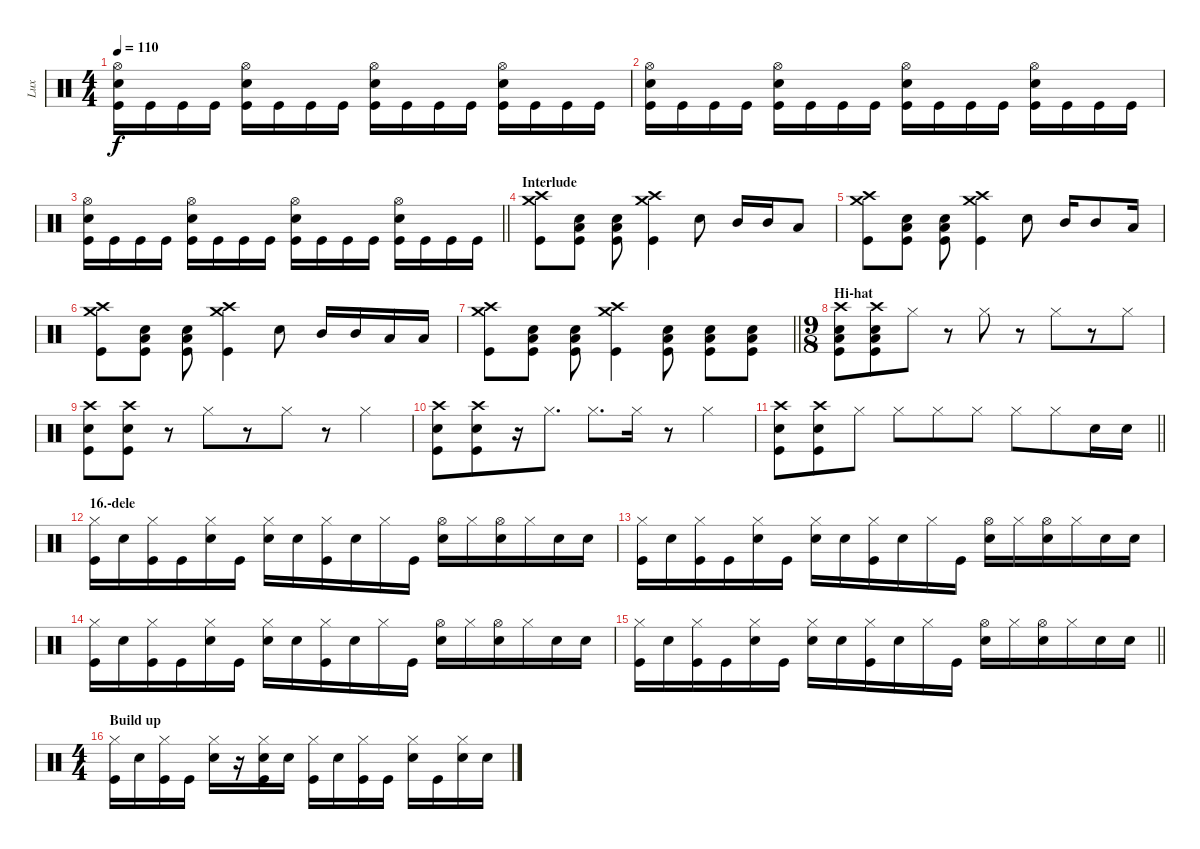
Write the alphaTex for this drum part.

\track ("Lux" "Lux") {instrument percussion}
\staff {score}
\articulation defaults
\ts (4 4)
\tempo 110
\clef neutral
\ks c
("Hi-Hat (open)" "Snare (hit) 2" "Kick (hit)").16{dy f} "Kick (hit)".16 "Kick (hit)".16 "Kick (hit)".16 ("Hi-Hat (open)" "Snare (hit) 2" "Kick (hit)").16 "Kick (hit)".16 "Kick (hit)".16 "Kick (hit)".16 ("Hi-Hat (open)" "Snare (hit) 2" "Kick (hit)").16 "Kick (hit)".16 "Kick (hit)".16 "Kick (hit)".16 ("Hi-Hat (open)" "Snare (hit) 2" "Kick (hit)").16 "Kick (hit)".16 "Kick (hit)".16 "Kick (hit)".16 |
("Hi-Hat (open)" "Snare (hit) 2" "Kick (hit)").16 "Kick (hit)".16 "Kick (hit)".16 "Kick (hit)".16 ("Hi-Hat (open)" "Snare (hit) 2" "Kick (hit)").16 "Kick (hit)".16 "Kick (hit)".16 "Kick (hit)".16 ("Hi-Hat (open)" "Snare (hit) 2" "Kick (hit)").16 "Kick (hit)".16 "Kick (hit)".16 "Kick (hit)".16 ("Hi-Hat (open)" "Snare (hit) 2" "Kick (hit)").16 "Kick (hit)".16 "Kick (hit)".16 "Kick (hit)".16 |
\barLineRight lightlight
("Hi-Hat (open)" "Snare (hit) 2" "Kick (hit)").16 "Kick (hit)".16 "Kick (hit)".16 "Kick (hit)".16 ("Hi-Hat (open)" "Snare (hit) 2" "Kick (hit)").16 "Kick (hit)".16 "Kick (hit)".16 "Kick (hit)".16 ("Hi-Hat (open)" "Snare (hit) 2" "Kick (hit)").16 "Kick (hit)".16 "Kick (hit)".16 "Kick (hit)".16 ("Hi-Hat (open)" "Snare (hit) 2" "Kick (hit)").16 "Kick (hit)".16 "Kick (hit)".16 "Kick (hit)".16 |
\section ("" "Interlude")
("Crash high (hit)" "Crash medium (hit)" "Kick (hit)").8 ("Low Tom (hit)" "Snare (hit) 2" "Kick (hit)").8 ("Low Tom (hit)" "Snare (hit) 2" "Kick (hit)").8 ("Crash high (hit)" "Crash medium (hit)" "Kick (hit)").4 "Snare (hit) 2".8 "Mid Tom (hit)".16 "Mid Tom (hit)".16 "Low Tom (hit)".8 |
("Crash high (hit)" "Crash medium (hit)" "Kick (hit)").8 ("Low Tom (hit)" "Snare (hit) 2" "Kick (hit)").8 ("Low Tom (hit)" "Snare (hit) 2" "Kick (hit)").8 ("Crash high (hit)" "Crash medium (hit)" "Kick (hit)").4 "Snare (hit) 2".8 "Mid Tom (hit)".16 "Mid Tom (hit)".8 "Low Tom (hit)".16 |
("Crash high (hit)" "Crash medium (hit)" "Kick (hit)").8 ("Low Tom (hit)" "Snare (hit) 2" "Kick (hit)").8 ("Low Tom (hit)" "Snare (hit) 2" "Kick (hit)").8 ("Crash high (hit)" "Crash medium (hit)" "Kick (hit)").4 "Snare (hit) 2".8 "Mid Tom (hit)".16 "Mid Tom (hit)".16 "Low Tom (hit)".16 "Low Tom (hit)".16 |
\barLineRight lightlight
("Crash high (hit)" "Crash medium (hit)" "Kick (hit)").8 ("Low Tom (hit)" "Snare (hit) 2" "Kick (hit)").8 ("Low Tom (hit)" "Snare (hit) 2" "Kick (hit)").8 ("Crash high (hit)" "Crash medium (hit)" "Kick (hit)").4 ("Low Tom (hit)" "Snare (hit) 2" "Kick (hit)").8 ("Low Tom (hit)" "Snare (hit) 2" "Kick (hit)").8 ("Low Tom (hit)" "Snare (hit) 2" "Kick (hit)").8 |
\ts (9 8)
\section ("" "Hi-hat")
("Crash high (hit)" "Low Tom (hit)" "Snare (hit) 2" "Kick (hit)").8 ("Crash high (hit)" "Low Tom (hit)" "Snare (hit) 2" "Kick (hit)").8 "Hi-Hat (closed)".8 r.8 "Hi-Hat (closed)".8 r.8 "Hi-Hat (closed)".8 r.8 "Hi-Hat (closed)".8 |
("Crash high (hit)" "Snare (hit) 2" "Kick (hit)").8 ("Crash high (hit)" "Snare (hit) 2" "Kick (hit)").8 r.8 "Hi-Hat (closed)".8 r.8 "Hi-Hat (closed)".8 r.8 "Hi-Hat (closed)".4 |
("Crash high (hit)" "Snare (hit) 2" "Kick (hit)").8 ("Crash high (hit)" "Snare (hit) 2" "Kick (hit)").8 r.16 "Hi-Hat (closed)".8{d} "Hi-Hat (closed)".8{d} "Hi-Hat (closed)".16 r.8 "Hi-Hat (closed)".4 |
\barLineRight lightlight
("Crash high (hit)" "Snare (hit) 2" "Kick (hit)").8 ("Crash high (hit)" "Snare (hit) 2" "Kick (hit)").8 "Hi-Hat (closed)".8 "Hi-Hat (closed)".8 "Hi-Hat (closed)".8 "Hi-Hat (closed)".8 "Hi-Hat (closed)".8 "Hi-Hat (closed)".8 "Snare (hit) 2".16 "Snare (hit) 2".16 |
\section ("" "16.-dele")
("Hi-Hat (closed)" "Kick (hit)").16 "Snare (hit) 2".16 ("Hi-Hat (closed)" "Kick (hit)").16 "Kick (hit)".16 ("Hi-Hat (closed)" "Snare (hit) 2").16 "Kick (hit)".16 ("Hi-Hat (closed)" "Snare (hit) 2").16 "Snare (hit) 2".16 ("Hi-Hat (closed)" "Kick (hit)").16 "Snare (hit) 2".16 "Hi-Hat (closed)".16 "Kick (hit)".16 ("Hi-Hat (open)" "Snare (hit) 2").16 "Hi-Hat (closed)".16 ("Hi-Hat (open)" "Snare (hit) 2").16 "Hi-Hat (closed)".16 "Snare (hit) 2".16 "Snare (hit) 2".16 |
("Hi-Hat (closed)" "Kick (hit)").16 "Snare (hit) 2".16 ("Hi-Hat (closed)" "Kick (hit)").16 "Kick (hit)".16 ("Hi-Hat (closed)" "Snare (hit) 2").16 "Kick (hit)".16 ("Hi-Hat (closed)" "Snare (hit) 2").16 "Snare (hit) 2".16 ("Hi-Hat (closed)" "Kick (hit)").16 "Snare (hit) 2".16 "Hi-Hat (closed)".16 "Kick (hit)".16 ("Hi-Hat (open)" "Snare (hit) 2").16 "Hi-Hat (closed)".16 ("Hi-Hat (open)" "Snare (hit) 2").16 "Hi-Hat (closed)".16 "Snare (hit) 2".16 "Snare (hit) 2".16 |
("Hi-Hat (closed)" "Kick (hit)").16 "Snare (hit) 2".16 ("Hi-Hat (closed)" "Kick (hit)").16 "Kick (hit)".16 ("Hi-Hat (closed)" "Snare (hit) 2").16 "Kick (hit)".16 ("Hi-Hat (closed)" "Snare (hit) 2").16 "Snare (hit) 2".16 ("Hi-Hat (closed)" "Kick (hit)").16 "Snare (hit) 2".16 "Hi-Hat (closed)".16 "Kick (hit)".16 ("Hi-Hat (open)" "Snare (hit) 2").16 "Hi-Hat (closed)".16 ("Hi-Hat (open)" "Snare (hit) 2").16 "Hi-Hat (closed)".16 "Snare (hit) 2".16 "Snare (hit) 2".16 |
\barLineRight lightlight
("Hi-Hat (closed)" "Kick (hit)").16 "Snare (hit) 2".16 ("Hi-Hat (closed)" "Kick (hit)").16 "Kick (hit)".16 ("Hi-Hat (closed)" "Snare (hit) 2").16 "Kick (hit)".16 ("Hi-Hat (closed)" "Snare (hit) 2").16 "Snare (hit) 2".16 ("Hi-Hat (closed)" "Kick (hit)").16 "Snare (hit) 2".16 "Hi-Hat (closed)".16 "Kick (hit)".16 ("Hi-Hat (open)" "Snare (hit) 2").16 "Hi-Hat (closed)".16 ("Hi-Hat (open)" "Snare (hit) 2").16 "Hi-Hat (closed)".16 "Snare (hit) 2".16 "Snare (hit) 2".16 |
\ts (4 4)
\section ("" "Build up")
("Hi-Hat (closed)" "Kick (hit)").16 "Snare (hit) 2".16 ("Hi-Hat (closed)" "Kick (hit)").16 "Kick (hit)".16 ("Hi-Hat (closed)" "Snare (hit) 2").16 r.16 ("Hi-Hat (closed)" "Snare (hit) 2" "Kick (hit)").16 "Snare (hit) 2".16 ("Hi-Hat (closed)" "Kick (hit)").16 "Snare (hit) 2".16 ("Hi-Hat (closed)" "Kick (hit)").16 "Kick (hit)".16 ("Hi-Hat (closed)" "Snare (hit) 2").16 "Kick (hit)".16 ("Hi-Hat (closed)" "Snare (hit) 2").16 "Snare (hit) 2".16
